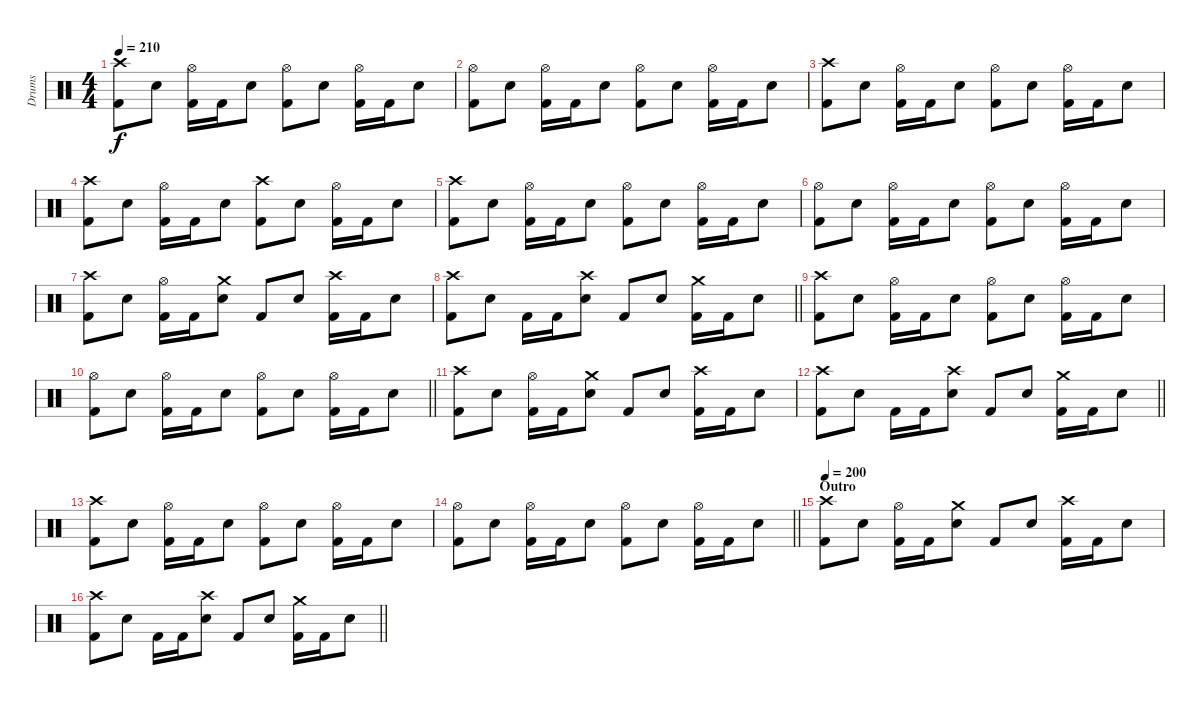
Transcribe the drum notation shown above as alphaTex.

\track ("Drums" "Drums") {instrument percussion}
\staff {score}
\articulation defaults
\ts (4 4)
\tempo 210
\clef neutral
\ks c
("Crash high (hit)" "Kick (hit) 2").8{dy f} "Snare (hit) 2".8 ("Hi-Hat (open)" "Kick (hit) 2").16 "Kick (hit) 2".16 "Snare (hit) 2".8 ("Hi-Hat (open)" "Kick (hit) 2").8 "Snare (hit) 2".8 ("Hi-Hat (open)" "Kick (hit) 2").16 "Kick (hit) 2".16 "Snare (hit) 2".8 |
("Hi-Hat (open)" "Kick (hit) 2").8 "Snare (hit) 2".8 ("Hi-Hat (open)" "Kick (hit) 2").16 "Kick (hit) 2".16 "Snare (hit) 2".8 ("Hi-Hat (open)" "Kick (hit) 2").8 "Snare (hit) 2".8 ("Hi-Hat (open)" "Kick (hit) 2").16 "Kick (hit) 2".16 "Snare (hit) 2".8 |
("Crash high (hit)" "Kick (hit) 2").8 "Snare (hit) 2".8 ("Hi-Hat (open)" "Kick (hit) 2").16 "Kick (hit) 2".16 "Snare (hit) 2".8 ("Hi-Hat (open)" "Kick (hit) 2").8 "Snare (hit) 2".8 ("Hi-Hat (open)" "Kick (hit) 2").16 "Kick (hit) 2".16 "Snare (hit) 2".8 |
("Crash high (hit)" "Kick (hit) 2").8 "Snare (hit) 2".8 ("Hi-Hat (open)" "Kick (hit) 2").16 "Kick (hit) 2".16 "Snare (hit) 2".8 ("Crash high (hit)" "Kick (hit) 2").8 "Snare (hit) 2".8 ("Hi-Hat (open)" "Kick (hit) 2").16 "Kick (hit) 2".16 "Snare (hit) 2".8 |
("Crash high (hit)" "Kick (hit) 2").8 "Snare (hit) 2".8 ("Hi-Hat (open)" "Kick (hit) 2").16 "Kick (hit) 2".16 "Snare (hit) 2".8 ("Hi-Hat (open)" "Kick (hit) 2").8 "Snare (hit) 2".8 ("Hi-Hat (open)" "Kick (hit) 2").16 "Kick (hit) 2".16 "Snare (hit) 2".8 |
("Hi-Hat (open)" "Kick (hit) 2").8 "Snare (hit) 2".8 ("Hi-Hat (open)" "Kick (hit) 2").16 "Kick (hit) 2".16 "Snare (hit) 2".8 ("Hi-Hat (open)" "Kick (hit) 2").8 "Snare (hit) 2".8 ("Hi-Hat (open)" "Kick (hit) 2").16 "Kick (hit) 2".16 "Snare (hit) 2".8 |
("Crash high (hit)" "Kick (hit) 2").8 "Snare (hit) 2".8 ("Hi-Hat (open)" "Kick (hit) 2").16 "Kick (hit) 2".16 ("Crash medium (hit)" "Snare (hit) 2").8 "Kick (hit) 2".8 "Snare (hit) 2".8 ("Crash high (hit)" "Kick (hit) 2").16 "Kick (hit) 2".16 "Snare (hit) 2".8 |
\barLineRight lightlight
("Crash high (hit)" "Kick (hit) 2").8 "Snare (hit) 2".8 "Kick (hit) 2".16 "Kick (hit) 2".16 ("Crash high (hit)" "Snare (hit) 2").8 "Kick (hit) 2".8 "Snare (hit) 2".8 ("Crash medium (hit)" "Kick (hit) 2").16 "Kick (hit) 2".16 "Snare (hit) 2".8 |
("Crash high (hit)" "Kick (hit) 2").8 "Snare (hit) 2".8 ("Hi-Hat (open)" "Kick (hit) 2").16 "Kick (hit) 2".16 "Snare (hit) 2".8 ("Hi-Hat (open)" "Kick (hit) 2").8 "Snare (hit) 2".8 ("Hi-Hat (open)" "Kick (hit) 2").16 "Kick (hit) 2".16 "Snare (hit) 2".8 |
\barLineRight lightlight
("Hi-Hat (open)" "Kick (hit) 2").8 "Snare (hit) 2".8 ("Hi-Hat (open)" "Kick (hit) 2").16 "Kick (hit) 2".16 "Snare (hit) 2".8 ("Hi-Hat (open)" "Kick (hit) 2").8 "Snare (hit) 2".8 ("Hi-Hat (open)" "Kick (hit) 2").16 "Kick (hit) 2".16 "Snare (hit) 2".8 |
("Crash high (hit)" "Kick (hit) 2").8 "Snare (hit) 2".8 ("Hi-Hat (open)" "Kick (hit) 2").16 "Kick (hit) 2".16 ("Crash medium (hit)" "Snare (hit) 2").8 "Kick (hit) 2".8 "Snare (hit) 2".8 ("Crash high (hit)" "Kick (hit) 2").16 "Kick (hit) 2".16 "Snare (hit) 2".8 |
\barLineRight lightlight
("Crash high (hit)" "Kick (hit) 2").8 "Snare (hit) 2".8 "Kick (hit) 2".16 "Kick (hit) 2".16 ("Crash high (hit)" "Snare (hit) 2").8 "Kick (hit) 2".8 "Snare (hit) 2".8 ("Crash medium (hit)" "Kick (hit) 2").16 "Kick (hit) 2".16 "Snare (hit) 2".8 |
("Crash high (hit)" "Kick (hit) 2").8 "Snare (hit) 2".8 ("Hi-Hat (open)" "Kick (hit) 2").16 "Kick (hit) 2".16 "Snare (hit) 2".8 ("Hi-Hat (open)" "Kick (hit) 2").8 "Snare (hit) 2".8 ("Hi-Hat (open)" "Kick (hit) 2").16 "Kick (hit) 2".16 "Snare (hit) 2".8 |
\barLineRight lightlight
("Hi-Hat (open)" "Kick (hit) 2").8 "Snare (hit) 2".8 ("Hi-Hat (open)" "Kick (hit) 2").16 "Kick (hit) 2".16 "Snare (hit) 2".8 ("Hi-Hat (open)" "Kick (hit) 2").8 "Snare (hit) 2".8 ("Hi-Hat (open)" "Kick (hit) 2").16 "Kick (hit) 2".16 "Snare (hit) 2".8 |
\section ("" "Outro")
\tempo 200
("Crash high (hit)" "Kick (hit) 2").8 "Snare (hit) 2".8 ("Hi-Hat (open)" "Kick (hit) 2").16 "Kick (hit) 2".16 ("Crash medium (hit)" "Snare (hit) 2").8 "Kick (hit) 2".8 "Snare (hit) 2".8 ("Crash high (hit)" "Kick (hit) 2").16 "Kick (hit) 2".16 "Snare (hit) 2".8 |
\barLineRight lightlight
("Crash high (hit)" "Kick (hit) 2").8 "Snare (hit) 2".8 "Kick (hit) 2".16 "Kick (hit) 2".16 ("Crash high (hit)" "Snare (hit) 2").8 "Kick (hit) 2".8 "Snare (hit) 2".8 ("Crash medium (hit)" "Kick (hit) 2").16 "Kick (hit) 2".16 "Snare (hit) 2".8
